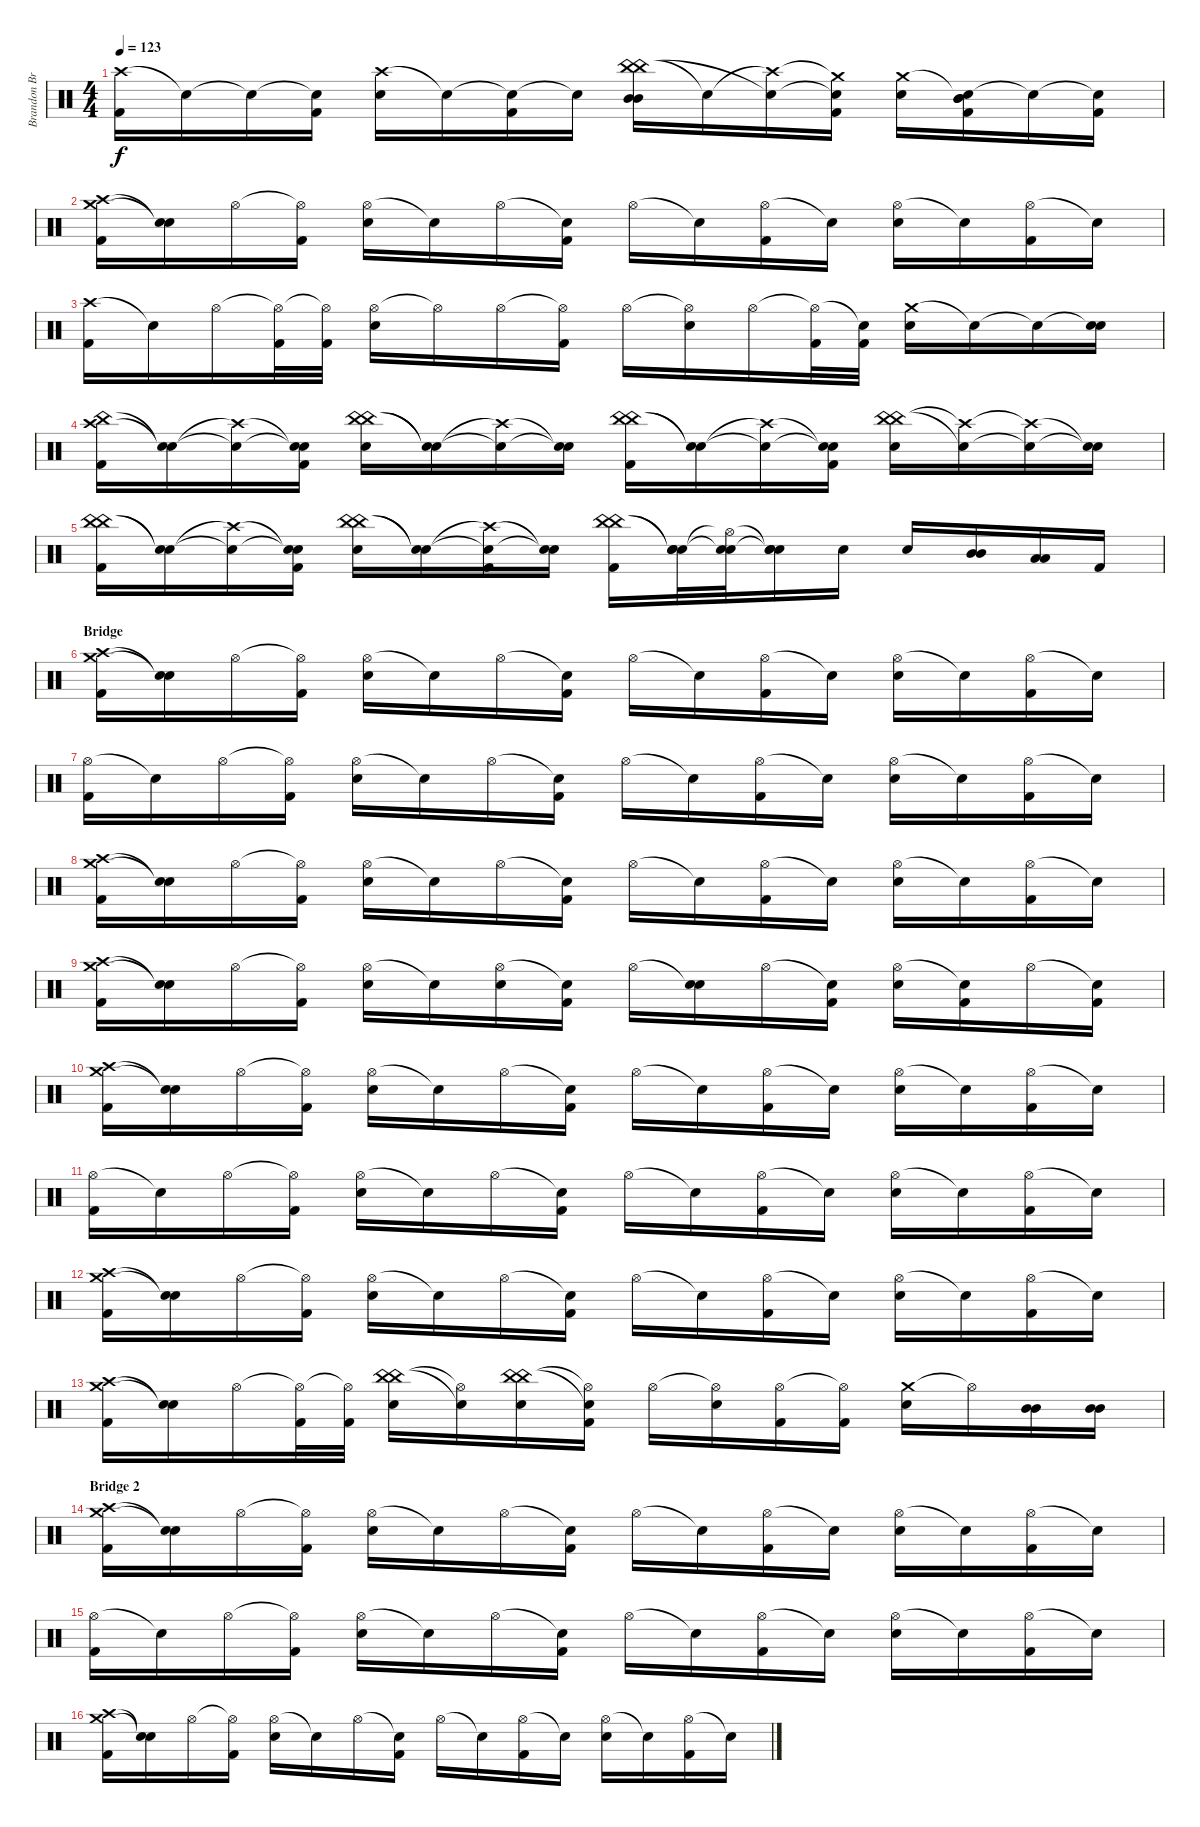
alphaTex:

\track ("Brandon Brown (Drums)" "Brandon Br") {instrument percussion}
\staff {score}
\articulation defaults
\ts (4 4)
\tempo 123
\clef neutral
\ks c
("Crash high (hit)" "Kick (hit) 2").16{dy f} "Snare (hit)"{t}.16 "Snare (hit)"{t}.16 ("Snare (hit)"{t} "Kick (hit) 2").16 ("Crash high (hit)" "Electric Snare (hit)").16 "Snare (hit)"{t}.16 ("Snare (hit)"{t} "Kick (hit) 2").16 "Snare (hit)"{t}.16 ("China (hit)" "China (hit)" "Mid Tom (hit)" "Mid Tom (hit)").16 "Snare (hit)"{t}.16 ("Crash high (hit)"{t} "Snare (hit)"{t}).16 ("Crash medium (hit)"{t} "Snare (hit)"{t} "Kick (hit) 2").16 ("Crash medium (hit)" "Electric Snare (hit)").16 ("Snare (hit)"{t} "Mid Tom (hit)" "Mid Tom (hit)" "Kick (hit) 2").16 "Snare (hit)"{t}.16 ("Snare (hit)"{t} "Kick (hit) 2").16 |
("Crash high (hit)" "Crash medium (hit)" "Kick (hit) 2").16 ("Snare (hit)"{t} "Snare (hit)"{t}).16 "Hi-Hat (open)".16 ("Hi-Hat (open)"{t} "Kick (hit) 2").16 ("Hi-Hat (open)" "Electric Snare (hit)").16 "Snare (hit)"{t}.16 "Hi-Hat (open)".16 ("Snare (hit)"{t} "Kick (hit) 2").16 "Hi-Hat (open)".16 "Snare (hit)"{t}.16 ("Hi-Hat (open)" "Kick (hit) 2").16 "Snare (hit)"{t}.16 ("Hi-Hat (open)" "Electric Snare (hit)").16 "Snare (hit)"{t}.16 ("Hi-Hat (open)" "Kick (hit) 2").16 "Snare (hit)"{t}.16 |
("Crash high (hit)" "Kick (hit) 2").16 "Snare (hit)"{t}.16 "Hi-Hat (open)".16 ("Hi-Hat (open)"{t} "Kick (hit) 2").32 ("Hi-Hat (open)"{t} "Kick (hit) 2").32 ("Hi-Hat (open)" "Electric Snare (hit)").16 "Hi-Hat (open)"{t}.16 "Hi-Hat (open)".16 ("Hi-Hat (open)"{t} "Kick (hit) 2").16 "Hi-Hat (open)".16 ("Hi-Hat (open)"{t} "Electric Snare (hit)").16 "Hi-Hat (open)".16 ("Hi-Hat (open)"{t} "Kick (hit) 2").32 ("Snare (hit)"{t} "Kick (hit) 2").32 ("Crash medium (hit)" "Electric Snare (hit)").16 "Snare (hit)"{t}.16 "Snare (hit)"{t}.16 ("Snare (hit)"{t} "Electric Snare (hit)").16 |
("Crash high (hit)" "China (hit)" "Kick (hit) 2").16 ("Snare (hit)"{t} "Snare (hit)"{t}).16 ("Crash high (hit)"{t} "Snare (hit)"{t}).16 ("Snare (hit)"{t} "Snare (hit)"{t} "Kick (hit) 2").16 ("China (hit)" "China (hit)" "Electric Snare (hit)").16 ("Snare (hit)"{t} "Snare (hit)"{t}).16 ("Crash high (hit)"{t} "Snare (hit)"{t}).16 ("Snare (hit)"{t} "Snare (hit)"{t}).16 ("China (hit)" "China (hit)" "Kick (hit) 2").16 ("Snare (hit)"{t} "Snare (hit)"{t}).16 ("Crash high (hit)"{t} "Snare (hit)"{t}).16 ("Snare (hit)"{t} "Snare (hit)"{t} "Kick (hit) 2").16 ("China (hit)" "China (hit)" "Electric Snare (hit)").16 ("Crash high (hit)"{t} "Snare (hit)"{t}).16 ("Crash high (hit)"{t} "Snare (hit)"{t}).16 ("Snare (hit)"{t} "Snare (hit)"{t}).16 |
("China (hit)" "China (hit)" "Kick (hit) 2").16 ("Snare (hit)"{t} "Snare (hit)"{t}).16 ("Crash high (hit)"{t} "Snare (hit)"{t}).16 ("Snare (hit)"{t} "Snare (hit)"{t} "Kick (hit) 2").16 ("China (hit)" "China (hit)" "Electric Snare (hit)").16 ("Snare (hit)"{t} "Snare (hit)"{t}).16 ("Crash high (hit)"{t} "Snare (hit)"{t} "Kick (hit) 2").16 ("Snare (hit)"{t} "Snare (hit)"{t}).16 ("China (hit)" "China (hit)" "Kick (hit) 2").16 ("Snare (hit)"{t} "Snare (hit)"{t} "Electric Snare (hit)").32 ("Hi-Hat (open)"{t} "Snare (hit)"{t} "Electric Snare (hit)").32 ("Snare (hit)"{t} "Snare (hit)"{t} "Electric Snare (hit)").16 "Electric Snare (hit)".16 "Electric Snare (hit)".16 ("Mid Tom (hit)" "Mid Tom (hit)").16 ("Low Tom (hit)" "Low Tom (hit)").16 "Kick (hit) 2".16 |
\section ("" "Bridge")
("Crash high (hit)" "Crash medium (hit)" "Kick (hit) 2").16 ("Snare (hit)"{t} "Snare (hit)"{t}).16 "Hi-Hat (open)".16 ("Hi-Hat (open)"{t} "Kick (hit) 2").16 ("Hi-Hat (open)" "Electric Snare (hit)").16 "Snare (hit)"{t}.16 "Hi-Hat (open)".16 ("Snare (hit)"{t} "Kick (hit) 2").16 "Hi-Hat (open)".16 "Snare (hit)"{t}.16 ("Hi-Hat (open)" "Kick (hit) 2").16 "Snare (hit)"{t}.16 ("Hi-Hat (open)" "Electric Snare (hit)").16 "Snare (hit)"{t}.16 ("Hi-Hat (open)" "Kick (hit) 2").16 "Snare (hit)"{t}.16 |
("Hi-Hat (open)" "Kick (hit) 2").16 "Snare (hit)"{t}.16 "Hi-Hat (open)".16 ("Hi-Hat (open)"{t} "Kick (hit) 2").16 ("Hi-Hat (open)" "Electric Snare (hit)").16 "Snare (hit)"{t}.16 "Hi-Hat (open)".16 ("Snare (hit)"{t} "Kick (hit) 2").16 "Hi-Hat (open)".16 "Snare (hit)"{t}.16 ("Hi-Hat (open)" "Kick (hit) 2").16 "Snare (hit)"{t}.16 ("Hi-Hat (open)" "Electric Snare (hit)").16 "Snare (hit)"{t}.16 ("Hi-Hat (open)" "Kick (hit) 2").16 "Snare (hit)"{t}.16 |
("Crash high (hit)" "Crash medium (hit)" "Kick (hit) 2").16 ("Snare (hit)"{t} "Snare (hit)"{t}).16 "Hi-Hat (open)".16 ("Hi-Hat (open)"{t} "Kick (hit) 2").16 ("Hi-Hat (open)" "Electric Snare (hit)").16 "Snare (hit)"{t}.16 "Hi-Hat (open)".16 ("Snare (hit)"{t} "Kick (hit) 2").16 "Hi-Hat (open)".16 "Snare (hit)"{t}.16 ("Hi-Hat (open)" "Kick (hit) 2").16 "Snare (hit)"{t}.16 ("Hi-Hat (open)" "Electric Snare (hit)").16 "Snare (hit)"{t}.16 ("Hi-Hat (open)" "Kick (hit) 2").16 "Snare (hit)"{t}.16 |
("Crash high (hit)" "Crash medium (hit)" "Kick (hit) 2").16 ("Snare (hit)"{t} "Snare (hit)"{t}).16 "Hi-Hat (open)".16 ("Hi-Hat (open)"{t} "Kick (hit) 2").16 ("Hi-Hat (open)" "Electric Snare (hit)").16 "Snare (hit)"{t}.16 ("Hi-Hat (open)" "Electric Snare (hit)").16 ("Snare (hit)"{t} "Kick (hit) 2").16 "Hi-Hat (open)".16 ("Snare (hit)"{t} "Electric Snare (hit)").16 "Hi-Hat (open)".16 ("Snare (hit)"{t} "Kick (hit) 2").16 ("Hi-Hat (open)" "Electric Snare (hit)").16 ("Snare (hit)"{t} "Kick (hit) 2").16 "Hi-Hat (open)".16 ("Snare (hit)"{t} "Kick (hit) 2").16 |
("Crash high (hit)" "Crash medium (hit)" "Kick (hit) 2").16 ("Snare (hit)"{t} "Snare (hit)"{t}).16 "Hi-Hat (open)".16 ("Hi-Hat (open)"{t} "Kick (hit) 2").16 ("Hi-Hat (open)" "Electric Snare (hit)").16 "Snare (hit)"{t}.16 "Hi-Hat (open)".16 ("Snare (hit)"{t} "Kick (hit) 2").16 "Hi-Hat (open)".16 "Snare (hit)"{t}.16 ("Hi-Hat (open)" "Kick (hit) 2").16 "Snare (hit)"{t}.16 ("Hi-Hat (open)" "Electric Snare (hit)").16 "Snare (hit)"{t}.16 ("Hi-Hat (open)" "Kick (hit) 2").16 "Snare (hit)"{t}.16 |
("Hi-Hat (open)" "Kick (hit) 2").16 "Snare (hit)"{t}.16 "Hi-Hat (open)".16 ("Hi-Hat (open)"{t} "Kick (hit) 2").16 ("Hi-Hat (open)" "Electric Snare (hit)").16 "Snare (hit)"{t}.16 "Hi-Hat (open)".16 ("Snare (hit)"{t} "Kick (hit) 2").16 "Hi-Hat (open)".16 "Snare (hit)"{t}.16 ("Hi-Hat (open)" "Kick (hit) 2").16 "Snare (hit)"{t}.16 ("Hi-Hat (open)" "Electric Snare (hit)").16 "Snare (hit)"{t}.16 ("Hi-Hat (open)" "Kick (hit) 2").16 "Snare (hit)"{t}.16 |
("Crash high (hit)" "Crash medium (hit)" "Kick (hit) 2").16 ("Snare (hit)"{t} "Snare (hit)"{t}).16 "Hi-Hat (open)".16 ("Hi-Hat (open)"{t} "Kick (hit) 2").16 ("Hi-Hat (open)" "Electric Snare (hit)").16 "Snare (hit)"{t}.16 "Hi-Hat (open)".16 ("Snare (hit)"{t} "Kick (hit) 2").16 "Hi-Hat (open)".16 "Snare (hit)"{t}.16 ("Hi-Hat (open)" "Kick (hit) 2").16 "Snare (hit)"{t}.16 ("Hi-Hat (open)" "Electric Snare (hit)").16 "Snare (hit)"{t}.16 ("Hi-Hat (open)" "Kick (hit) 2").16 "Snare (hit)"{t}.16 |
("Crash high (hit)" "Crash medium (hit)" "Kick (hit) 2").16 ("Snare (hit)"{t} "Snare (hit)"{t}).16 "Hi-Hat (open)".16 ("Hi-Hat (open)"{t} "Kick (hit) 2").32 ("Hi-Hat (open)"{t} "Kick (hit) 2").32 ("China (hit)" "China (hit)" "Electric Snare (hit)").16 ("Hi-Hat (open)"{t} "Snare (hit)"{t}).16 ("China (hit)" "China (hit)" "Electric Snare (hit)").16 ("Hi-Hat (open)"{t} "Snare (hit)"{t} "Kick (hit) 2").16 "Hi-Hat (open)".16 ("Hi-Hat (open)"{t} "Electric Snare (hit)").16 ("Hi-Hat (open)" "Kick (hit) 2").16 ("Hi-Hat (open)"{t} "Kick (hit) 2").16 ("Crash medium (hit)" "Electric Snare (hit)").16 "Hi-Hat (open)"{t}.16 ("Mid Tom (hit)" "Mid Tom (hit)").16 ("Mid Tom (hit)" "Mid Tom (hit)").16 |
\section ("" "Bridge 2")
("Crash high (hit)" "Crash medium (hit)" "Kick (hit) 2").16 ("Snare (hit)"{t} "Snare (hit)"{t}).16 "Hi-Hat (open)".16 ("Hi-Hat (open)"{t} "Kick (hit) 2").16 ("Hi-Hat (open)" "Electric Snare (hit)").16 "Snare (hit)"{t}.16 "Hi-Hat (open)".16 ("Snare (hit)"{t} "Kick (hit) 2").16 "Hi-Hat (open)".16 "Snare (hit)"{t}.16 ("Hi-Hat (open)" "Kick (hit) 2").16 "Snare (hit)"{t}.16 ("Hi-Hat (open)" "Electric Snare (hit)").16 "Snare (hit)"{t}.16 ("Hi-Hat (open)" "Kick (hit) 2").16 "Snare (hit)"{t}.16 |
("Hi-Hat (open)" "Kick (hit) 2").16 "Snare (hit)"{t}.16 "Hi-Hat (open)".16 ("Hi-Hat (open)"{t} "Kick (hit) 2").16 ("Hi-Hat (open)" "Electric Snare (hit)").16 "Snare (hit)"{t}.16 "Hi-Hat (open)".16 ("Snare (hit)"{t} "Kick (hit) 2").16 "Hi-Hat (open)".16 "Snare (hit)"{t}.16 ("Hi-Hat (open)" "Kick (hit) 2").16 "Snare (hit)"{t}.16 ("Hi-Hat (open)" "Electric Snare (hit)").16 "Snare (hit)"{t}.16 ("Hi-Hat (open)" "Kick (hit) 2").16 "Snare (hit)"{t}.16 |
("Crash high (hit)" "Crash medium (hit)" "Kick (hit) 2").16 ("Snare (hit)"{t} "Snare (hit)"{t}).16 "Hi-Hat (open)".16 ("Hi-Hat (open)"{t} "Kick (hit) 2").16 ("Hi-Hat (open)" "Electric Snare (hit)").16 "Snare (hit)"{t}.16 "Hi-Hat (open)".16 ("Snare (hit)"{t} "Kick (hit) 2").16 "Hi-Hat (open)".16 "Snare (hit)"{t}.16 ("Hi-Hat (open)" "Kick (hit) 2").16 "Snare (hit)"{t}.16 ("Hi-Hat (open)" "Electric Snare (hit)").16 "Snare (hit)"{t}.16 ("Hi-Hat (open)" "Kick (hit) 2").16 "Snare (hit)"{t}.16
